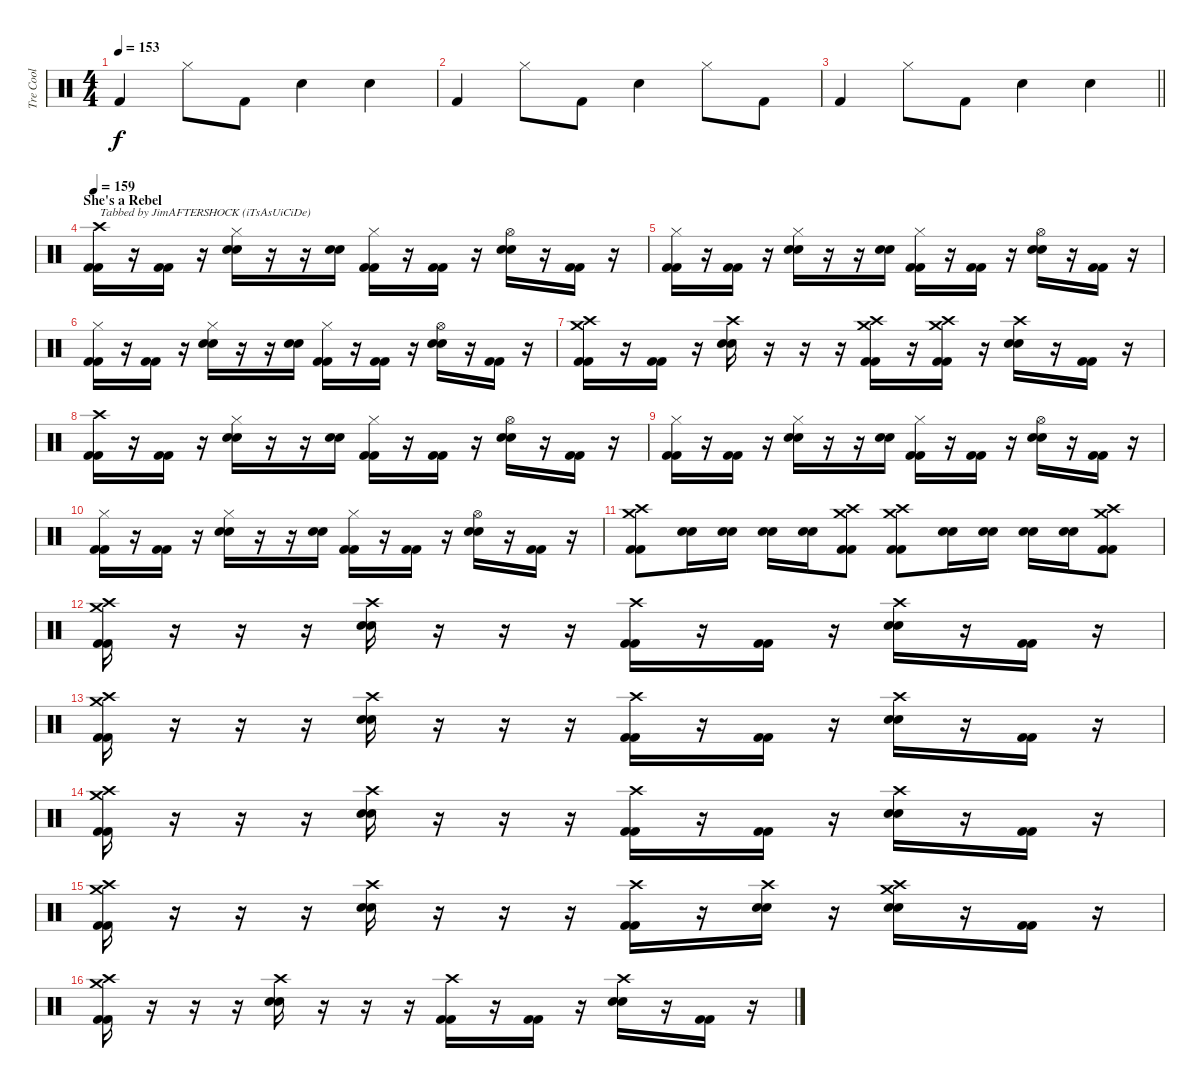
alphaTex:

\track ("Tre Cool" "Tre Cool") {instrument percussion}
\staff {score}
\articulation defaults
\ts (4 4)
\tempo 153
\clef neutral
\ks c "Kick (hit) 2".4{dy f} "Hi-Hat (closed)".8 "Kick (hit) 2".8 "Snare (hit) 2".4 "Snare (hit) 2".4
|
"Kick (hit) 2".4 "Hi-Hat (closed)".8 "Kick (hit) 2".8 "Snare (hit) 2".4 "Hi-Hat (closed)".8 "Kick (hit) 2".8 |
\barLineRight lightlight "Kick (hit) 2".4 "Hi-Hat (closed)".8 "Kick (hit) 2".8 "Snare (hit) 2".4 "Snare (hit) 2".4
|
\section ("" "She's a Rebel")
\tempo 159
("Crash high (hit)" "Kick (hit) 2" "Kick (hit) 2").16{txt "Tabbed by JimAFTERSHOCK (iTsAsUiCiDe)"} r.16 ("Kick (hit) 2" "Kick (hit) 2").16 r.16 ("Hi-Hat (closed)" "Snare (hit) 2" "Snare (hit) 2").16 r.16 r.16 ("Snare (hit) 2" "Snare (hit) 2").16 ("Hi-Hat (closed)" "Kick (hit) 2" "Kick (hit) 2").16 r.16 ("Kick (hit) 2" "Kick (hit) 2").16 r.16 ("Hi-Hat (open)" "Snare (hit) 2" "Snare (hit) 2").16 r.16 ("Kick (hit) 2" "Kick (hit) 2").16 r.16 |
("Hi-Hat (closed)" "Kick (hit) 2" "Kick (hit) 2").16 r.16 ("Kick (hit) 2" "Kick (hit) 2").16 r.16 ("Hi-Hat (closed)" "Snare (hit) 2" "Snare (hit) 2").16 r.16 r.16 ("Snare (hit) 2" "Snare (hit) 2").16 ("Hi-Hat (closed)" "Kick (hit) 2" "Kick (hit) 2").16 r.16 ("Kick (hit) 2" "Kick (hit) 2").16 r.16 ("Hi-Hat (open)" "Snare (hit) 2" "Snare (hit) 2").16 r.16 ("Kick (hit) 2" "Kick (hit) 2").16 r.16 |
("Hi-Hat (closed)" "Kick (hit) 2" "Kick (hit) 2").16 r.16 ("Kick (hit) 2" "Kick (hit) 2").16 r.16 ("Hi-Hat (closed)" "Snare (hit) 2" "Snare (hit) 2").16 r.16 r.16 ("Snare (hit) 2" "Snare (hit) 2").16 ("Hi-Hat (closed)" "Kick (hit) 2" "Kick (hit) 2").16 r.16 ("Kick (hit) 2" "Kick (hit) 2").16 r.16 ("Hi-Hat (open)" "Snare (hit) 2" "Snare (hit) 2").16 r.16 ("Kick (hit) 2" "Kick (hit) 2").16 r.16 |
("Crash high (hit)" "Crash medium (hit)" "Kick (hit) 2" "Kick (hit) 2").16 r.16 ("Kick (hit) 2" "Kick (hit) 2").16 r.16 ("Crash high (hit)" "Snare (hit) 2" "Snare (hit) 2").16 r.16 r.16 r.16 ("Crash medium (hit)" "Crash high (hit)" "Kick (hit) 2" "Kick (hit) 2").16 r.16 ("Crash medium (hit)" "Crash high (hit)" "Kick (hit) 2" "Kick (hit) 2").16 r.16 ("Crash high (hit)" "Snare (hit) 2" "Snare (hit) 2").16 r.16 ("Kick (hit) 2" "Kick (hit) 2").16 r.16 |
("Crash high (hit)" "Kick (hit) 2" "Kick (hit) 2").16 r.16 ("Kick (hit) 2" "Kick (hit) 2").16 r.16 ("Hi-Hat (closed)" "Snare (hit) 2" "Snare (hit) 2").16 r.16 r.16 ("Snare (hit) 2" "Snare (hit) 2").16 ("Hi-Hat (closed)" "Kick (hit) 2" "Kick (hit) 2").16 r.16 ("Kick (hit) 2" "Kick (hit) 2").16 r.16 ("Hi-Hat (open)" "Snare (hit) 2" "Snare (hit) 2").16 r.16 ("Kick (hit) 2" "Kick (hit) 2").16 r.16 |
("Hi-Hat (closed)" "Kick (hit) 2" "Kick (hit) 2").16 r.16 ("Kick (hit) 2" "Kick (hit) 2").16 r.16 ("Hi-Hat (closed)" "Snare (hit) 2" "Snare (hit) 2").16 r.16 r.16 ("Snare (hit) 2" "Snare (hit) 2").16 ("Hi-Hat (closed)" "Kick (hit) 2" "Kick (hit) 2").16 r.16 ("Kick (hit) 2" "Kick (hit) 2").16 r.16 ("Hi-Hat (open)" "Snare (hit) 2" "Snare (hit) 2").16 r.16 ("Kick (hit) 2" "Kick (hit) 2").16 r.16 |
("Hi-Hat (closed)" "Kick (hit) 2" "Kick (hit) 2").16 r.16 ("Kick (hit) 2" "Kick (hit) 2").16 r.16 ("Hi-Hat (closed)" "Snare (hit) 2" "Snare (hit) 2").16 r.16 r.16 ("Snare (hit) 2" "Snare (hit) 2").16 ("Hi-Hat (closed)" "Kick (hit) 2" "Kick (hit) 2").16 r.16 ("Kick (hit) 2" "Kick (hit) 2").16 r.16 ("Hi-Hat (open)" "Snare (hit) 2" "Snare (hit) 2").16 r.16 ("Kick (hit) 2" "Kick (hit) 2").16 r.16 |
("Crash medium (hit)" "Crash high (hit)" "Kick (hit) 2" "Kick (hit) 2").8 ("Snare (hit) 2" "Snare (hit) 2").16 ("Snare (hit) 2" "Snare (hit) 2").16 ("Snare (hit) 2" "Snare (hit) 2").16 ("Snare (hit) 2" "Snare (hit) 2").16 ("Crash high (hit)" "Crash medium (hit)" "Kick (hit) 2" "Kick (hit) 2").8 ("Crash medium (hit)" "Crash high (hit)" "Kick (hit) 2" "Kick (hit) 2").8 ("Snare (hit) 2" "Snare (hit) 2").16 ("Snare (hit) 2" "Snare (hit) 2").16 ("Snare (hit) 2" "Snare (hit) 2").16 ("Snare (hit) 2" "Snare (hit) 2").16 ("Crash medium (hit)" "Crash high (hit)" "Kick (hit) 2" "Kick (hit) 2").8 |
("Crash high (hit)" "Crash medium (hit)" "Kick (hit) 2" "Kick (hit) 2").16 r.16 r.16 r.16 ("Crash high (hit)" "Snare (hit) 2" "Snare (hit) 2").16 r.16 r.16 r.16 ("Crash high (hit)" "Kick (hit) 2" "Kick (hit) 2").16 r.16 ("Kick (hit) 2" "Kick (hit) 2").16 r.16 ("Crash high (hit)" "Snare (hit) 2" "Snare (hit) 2").16 r.16 ("Kick (hit) 2" "Kick (hit) 2").16 r.16 |
("Crash high (hit)" "Crash medium (hit)" "Kick (hit) 2" "Kick (hit) 2").16 r.16 r.16 r.16 ("Crash high (hit)" "Snare (hit) 2" "Snare (hit) 2").16 r.16 r.16 r.16 ("Crash high (hit)" "Kick (hit) 2" "Kick (hit) 2").16 r.16 ("Kick (hit) 2" "Kick (hit) 2").16 r.16 ("Crash high (hit)" "Snare (hit) 2" "Snare (hit) 2").16 r.16 ("Kick (hit) 2" "Kick (hit) 2").16 r.16 |
("Crash high (hit)" "Crash medium (hit)" "Kick (hit) 2" "Kick (hit) 2").16 r.16 r.16 r.16 ("Crash high (hit)" "Snare (hit) 2" "Snare (hit) 2").16 r.16 r.16 r.16 ("Crash high (hit)" "Kick (hit) 2" "Kick (hit) 2").16 r.16 ("Kick (hit) 2" "Kick (hit) 2").16 r.16 ("Crash high (hit)" "Snare (hit) 2" "Snare (hit) 2").16 r.16 ("Kick (hit) 2" "Kick (hit) 2").16 r.16 |
("Crash high (hit)" "Crash medium (hit)" "Kick (hit) 2" "Kick (hit) 2").16 r.16 r.16 r.16 ("Crash high (hit)" "Snare (hit) 2" "Snare (hit) 2").16 r.16 r.16 r.16 ("Crash high (hit)" "Kick (hit) 2" "Kick (hit) 2").16 r.16 ("Crash high (hit)" "Snare (hit) 2" "Snare (hit) 2").16 r.16 ("Crash high (hit)" "Crash medium (hit)" "Snare (hit) 2" "Snare (hit) 2").16 r.16 ("Kick (hit) 2" "Kick (hit) 2").16 r.16 |
("Crash high (hit)" "Crash medium (hit)" "Kick (hit) 2" "Kick (hit) 2").16 r.16 r.16 r.16 ("Crash high (hit)" "Snare (hit) 2" "Snare (hit) 2").16 r.16 r.16 r.16 ("Crash high (hit)" "Kick (hit) 2" "Kick (hit) 2").16 r.16 ("Kick (hit) 2" "Kick (hit) 2").16 r.16 ("Crash high (hit)" "Snare (hit) 2" "Snare (hit) 2").16 r.16 ("Kick (hit) 2" "Kick (hit) 2").16 r.16
